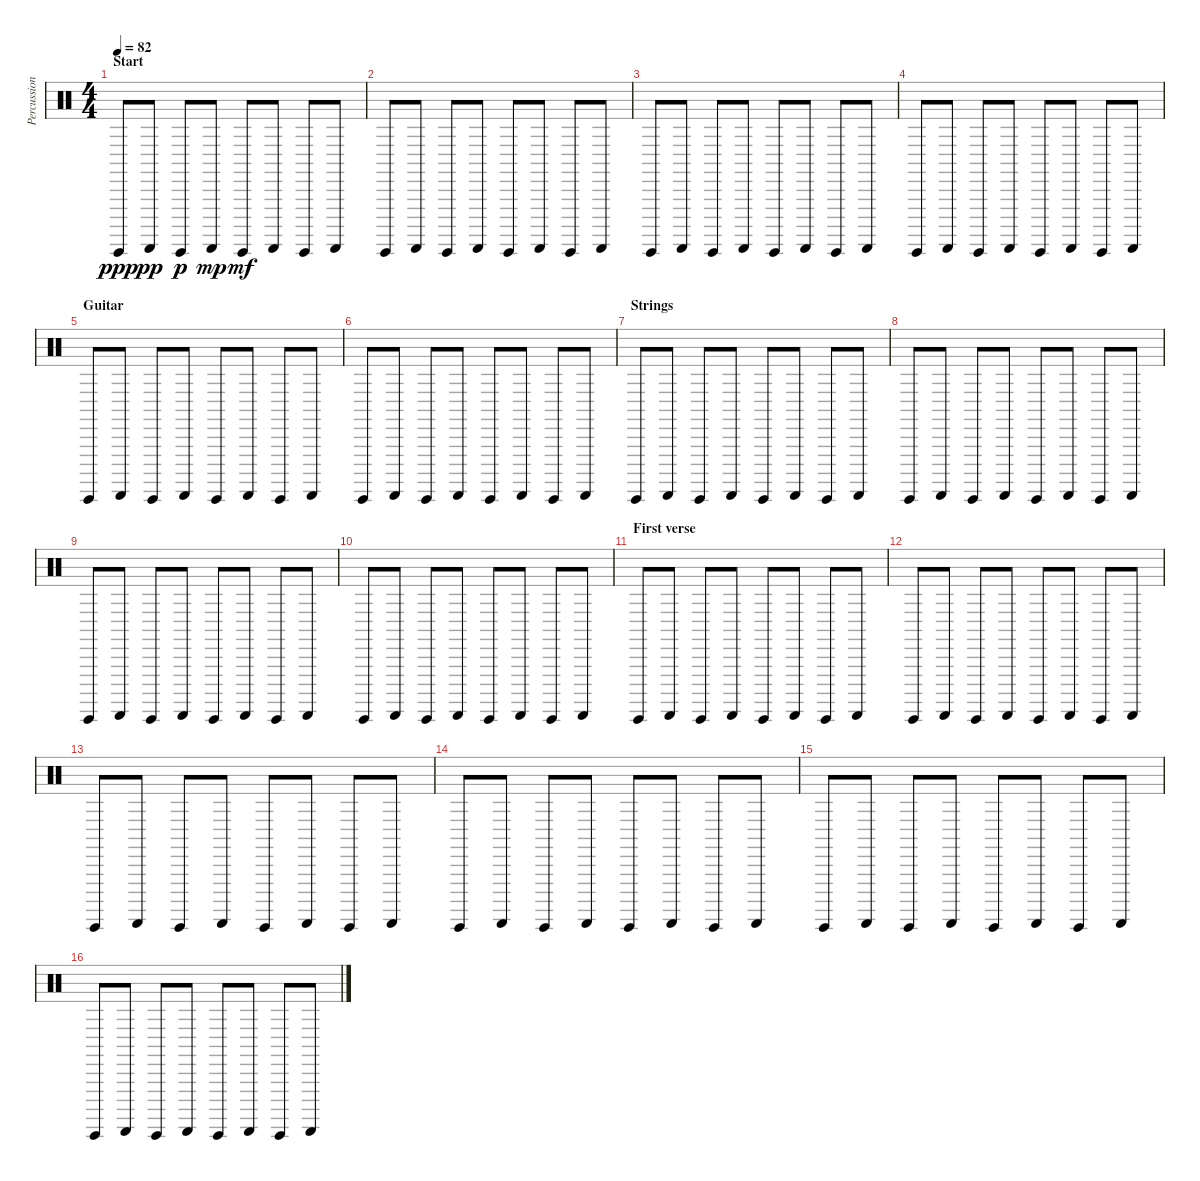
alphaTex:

\track ("Percussion/Effects" "Percussion") {instrument percussion}
\staff {score}
\articulation defaults
\ts (4 4)
\section ("" "Start")
\tempo 82
\clef neutral
\ks c "Guiro (hit)".8{dy ppp} "Guiro (scrap-return)".8{dy pp} "Guiro (hit)".8{dy p} "Guiro (scrap-return)".8{dy mp} "Guiro (hit)".8{dy mf} "Guiro (scrap-return)".8 "Guiro (hit)".8 "Guiro (scrap-return)".8
|
"Guiro (hit)".8 "Guiro (scrap-return)".8 "Guiro (hit)".8 "Guiro (scrap-return)".8 "Guiro (hit)".8 "Guiro (scrap-return)".8 "Guiro (hit)".8 "Guiro (scrap-return)".8 |
"Guiro (hit)".8 "Guiro (scrap-return)".8 "Guiro (hit)".8 "Guiro (scrap-return)".8 "Guiro (hit)".8 "Guiro (scrap-return)".8 "Guiro (hit)".8 "Guiro (scrap-return)".8 |
"Guiro (hit)".8 "Guiro (scrap-return)".8 "Guiro (hit)".8 "Guiro (scrap-return)".8 "Guiro (hit)".8 "Guiro (scrap-return)".8 "Guiro (hit)".8 "Guiro (scrap-return)".8 |
\section ("" "Guitar")
"Guiro (hit)".8 "Guiro (scrap-return)".8 "Guiro (hit)".8 "Guiro (scrap-return)".8 "Guiro (hit)".8 "Guiro (scrap-return)".8 "Guiro (hit)".8 "Guiro (scrap-return)".8 |
"Guiro (hit)".8 "Guiro (scrap-return)".8 "Guiro (hit)".8 "Guiro (scrap-return)".8 "Guiro (hit)".8 "Guiro (scrap-return)".8 "Guiro (hit)".8 "Guiro (scrap-return)".8 |
\section ("" "Strings")
"Guiro (hit)".8 "Guiro (scrap-return)".8 "Guiro (hit)".8 "Guiro (scrap-return)".8 "Guiro (hit)".8 "Guiro (scrap-return)".8 "Guiro (hit)".8 "Guiro (scrap-return)".8 |
"Guiro (hit)".8 "Guiro (scrap-return)".8 "Guiro (hit)".8 "Guiro (scrap-return)".8 "Guiro (hit)".8 "Guiro (scrap-return)".8 "Guiro (hit)".8 "Guiro (scrap-return)".8 |
"Guiro (hit)".8 "Guiro (scrap-return)".8 "Guiro (hit)".8 "Guiro (scrap-return)".8 "Guiro (hit)".8 "Guiro (scrap-return)".8 "Guiro (hit)".8 "Guiro (scrap-return)".8 |
"Guiro (hit)".8 "Guiro (scrap-return)".8 "Guiro (hit)".8 "Guiro (scrap-return)".8 "Guiro (hit)".8 "Guiro (scrap-return)".8 "Guiro (hit)".8 "Guiro (scrap-return)".8 |
\section ("" "First verse")
"Guiro (hit)".8 "Guiro (scrap-return)".8 "Guiro (hit)".8 "Guiro (scrap-return)".8 "Guiro (hit)".8 "Guiro (scrap-return)".8 "Guiro (hit)".8 "Guiro (scrap-return)".8 |
"Guiro (hit)".8 "Guiro (scrap-return)".8 "Guiro (hit)".8 "Guiro (scrap-return)".8 "Guiro (hit)".8 "Guiro (scrap-return)".8 "Guiro (hit)".8 "Guiro (scrap-return)".8 |
"Guiro (hit)".8 "Guiro (scrap-return)".8 "Guiro (hit)".8 "Guiro (scrap-return)".8 "Guiro (hit)".8 "Guiro (scrap-return)".8 "Guiro (hit)".8 "Guiro (scrap-return)".8 |
"Guiro (hit)".8 "Guiro (scrap-return)".8 "Guiro (hit)".8 "Guiro (scrap-return)".8 "Guiro (hit)".8 "Guiro (scrap-return)".8 "Guiro (hit)".8 "Guiro (scrap-return)".8 |
"Guiro (hit)".8 "Guiro (scrap-return)".8 "Guiro (hit)".8 "Guiro (scrap-return)".8 "Guiro (hit)".8 "Guiro (scrap-return)".8 "Guiro (hit)".8 "Guiro (scrap-return)".8 |
"Guiro (hit)".8 "Guiro (scrap-return)".8 "Guiro (hit)".8 "Guiro (scrap-return)".8 "Guiro (hit)".8 "Guiro (scrap-return)".8 "Guiro (hit)".8 "Guiro (scrap-return)".8
